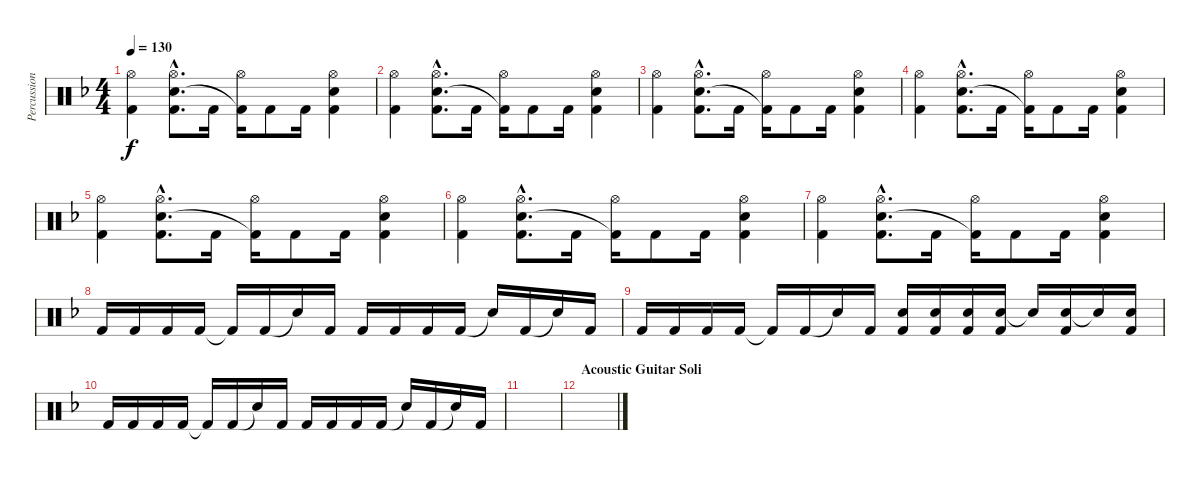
\track ("Percussion" "Percussion") {instrument percussion}
\staff {score}
\articulation defaults
\ts (4 4)
\tempo 130
\clef neutral
\ks dminor
("Hi-Hat (open)" "Kick (hit) 2").4{dy f} ("Hi-Hat (open)"{hac} "Snare (hit) 2"{hac} "Kick (hit) 2"{hac}).8{d} "Kick (hit) 2".16 ("Hi-Hat (open)" "Kick (hit) 2"{t}).16 "Kick (hit) 2".8 "Kick (hit) 2".16 ("Hi-Hat (open)" "Snare (hit) 2" "Kick (hit) 2").4 |
("Hi-Hat (open)" "Kick (hit) 2").4 ("Hi-Hat (open)"{hac} "Snare (hit) 2"{hac} "Kick (hit) 2"{hac}).8{d} "Kick (hit) 2".16 ("Hi-Hat (open)" "Kick (hit) 2"{t}).16 "Kick (hit) 2".8 "Kick (hit) 2".16 ("Hi-Hat (open)" "Snare (hit) 2" "Kick (hit) 2").4 |
("Hi-Hat (open)" "Kick (hit) 2").4 ("Hi-Hat (open)"{hac} "Snare (hit) 2"{hac} "Kick (hit) 2"{hac}).8{d} "Kick (hit) 2".16 ("Hi-Hat (open)" "Kick (hit) 2"{t}).16 "Kick (hit) 2".8 "Kick (hit) 2".16 ("Hi-Hat (open)" "Snare (hit) 2" "Kick (hit) 2").4 |
("Hi-Hat (open)" "Kick (hit) 2").4 ("Hi-Hat (open)"{hac} "Snare (hit) 2"{hac} "Kick (hit) 2"{hac}).8{d} "Kick (hit) 2".16 ("Hi-Hat (open)" "Kick (hit) 2"{t}).16 "Kick (hit) 2".8 "Kick (hit) 2".16 ("Hi-Hat (open)" "Snare (hit) 2" "Kick (hit) 2").4 |
("Hi-Hat (open)" "Kick (hit) 2").4 ("Hi-Hat (open)"{hac} "Snare (hit) 2"{hac} "Kick (hit) 2"{hac}).8{d} "Kick (hit) 2".16 ("Hi-Hat (open)" "Kick (hit) 2"{t}).16 "Kick (hit) 2".8 "Kick (hit) 2".16 ("Hi-Hat (open)" "Snare (hit) 2" "Kick (hit) 2").4 |
("Hi-Hat (open)" "Kick (hit) 2").4 ("Hi-Hat (open)"{hac} "Snare (hit) 2"{hac} "Kick (hit) 2"{hac}).8{d} "Kick (hit) 2".16 ("Hi-Hat (open)" "Kick (hit) 2"{t}).16 "Kick (hit) 2".8 "Kick (hit) 2".16 ("Hi-Hat (open)" "Snare (hit) 2" "Kick (hit) 2").4 |
("Hi-Hat (open)" "Kick (hit) 2").4 ("Hi-Hat (open)"{hac} "Snare (hit) 2"{hac} "Kick (hit) 2"{hac}).8{d} "Kick (hit) 2".16 ("Hi-Hat (open)" "Kick (hit) 2"{t}).16 "Kick (hit) 2".8 "Kick (hit) 2".16 ("Hi-Hat (open)" "Snare (hit) 2" "Kick (hit) 2").4 |
"Kick (hit) 2".16 "Kick (hit) 2".16 "Kick (hit) 2".16 "Kick (hit) 2".16 "Kick (hit) 2"{t}.16 "Kick (hit) 2".16 "Snare (hit)"{t}.16 "Kick (hit) 2".16 "Kick (hit) 2".16 "Kick (hit) 2".16 "Kick (hit) 2".16 "Kick (hit) 2".16 "Snare (hit)"{t}.16 "Kick (hit) 2".16 "Snare (hit)"{t}.16 "Kick (hit) 2".16 |
"Kick (hit) 2".16 "Kick (hit) 2".16 "Kick (hit) 2".16 "Kick (hit) 2".16 "Kick (hit) 2"{t}.16 "Kick (hit) 2".16 "Snare (hit)"{t}.16 "Kick (hit) 2".16 ("Snare (hit) 2" "Kick (hit) 2").16 ("Snare (hit) 2" "Kick (hit) 2").16 ("Snare (hit) 2" "Kick (hit) 2").16 ("Snare (hit) 2" "Kick (hit) 2").16 "Snare (hit)"{t}.16 ("Snare (hit) 2" "Kick (hit) 2").16 "Snare (hit)"{t}.16 ("Snare (hit) 2" "Kick (hit) 2").16 |
"Kick (hit) 2".16 "Kick (hit) 2".16 "Kick (hit) 2".16 "Kick (hit) 2".16 "Kick (hit) 2"{t}.16 "Kick (hit) 2".16 "Snare (hit)"{t}.16 "Kick (hit) 2".16 "Kick (hit) 2".16 "Kick (hit) 2".16 "Kick (hit) 2".16 "Kick (hit) 2".16 "Snare (hit)"{t}.16 "Kick (hit) 2".16 "Snare (hit)"{t}.16 "Kick (hit) 2".16 |
|
\section ("" "Acoustic Guitar Soli")
